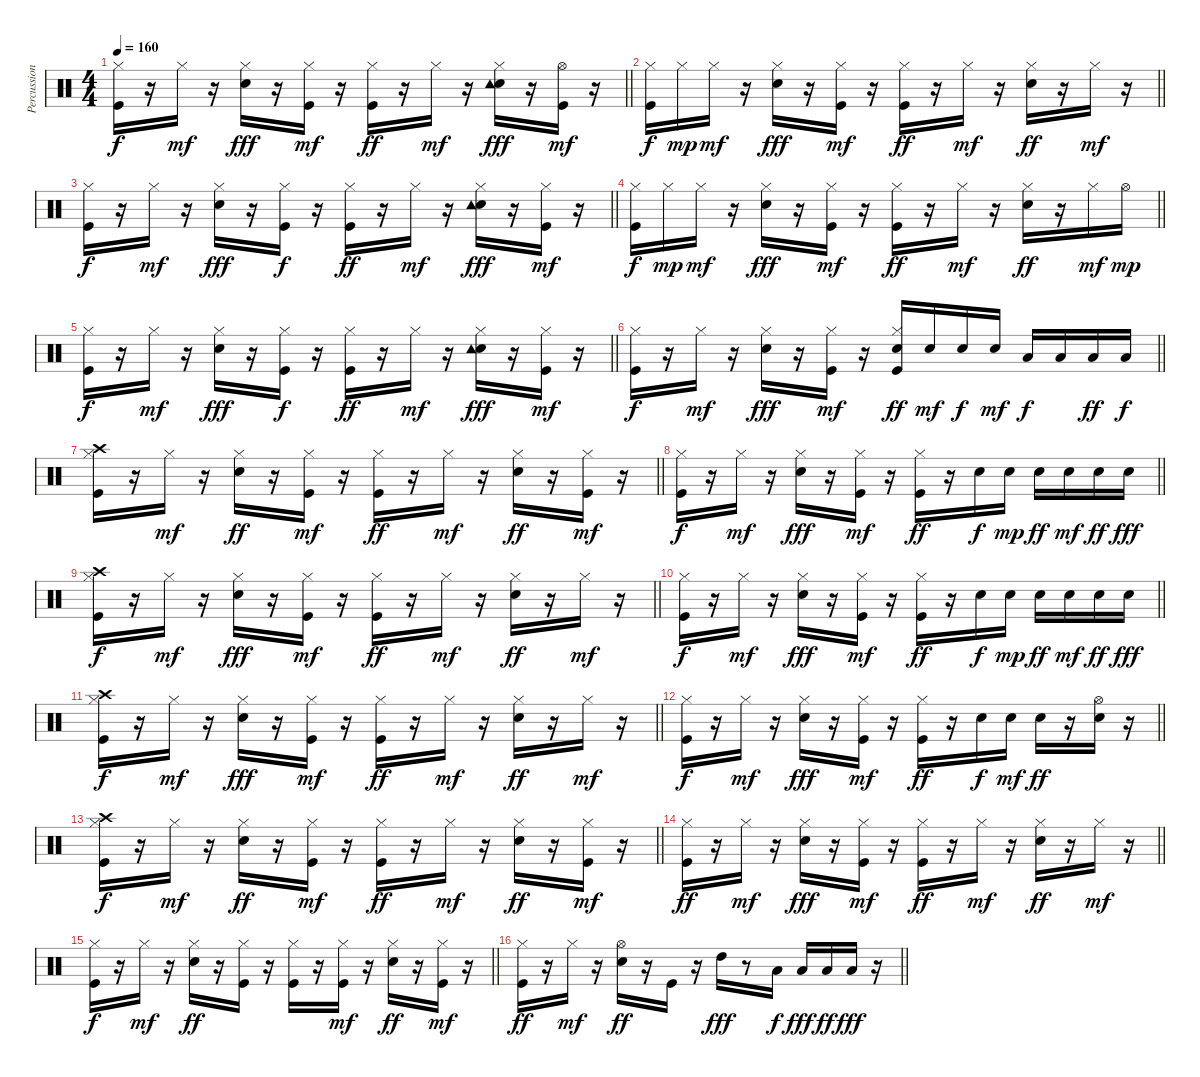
\track ("Percussions" "Percussion") {instrument percussion}
\staff {score}
\articulation defaults
\ts (4 4)
\tempo 160
\clef neutral
\barLineRight lightlight
\ks c
("Kick (hit)" "Hi-Hat (closed)").16{dy f} r.16 "Hi-Hat (closed)".16{dy mf} r.16 ("Snare (hit) 2" "Hi-Hat (closed)").16{dy fff} r.16 ("Kick (hit)" "Hi-Hat (closed)").16{dy mf} r.16 ("Kick (hit)" "Hi-Hat (closed)").16{dy ff} r.16 "Hi-Hat (closed)".16{dy mf} r.16 ("Snare (hit) 2" "Hi-Hat (closed)" "Tambourine (hit)").16{dy fff} r.16 ("Kick (hit)" "Hi-Hat (open)").16{dy mf} r.16 |
\barLineRight lightlight
("Kick (hit)" "Hi-Hat (closed)").16{dy f} "Hi-Hat (closed)".16{dy mp} "Hi-Hat (closed)".16{dy mf} r.16 ("Snare (hit) 2" "Hi-Hat (closed)").16{dy fff} r.16 ("Kick (hit)" "Hi-Hat (closed)").16{dy mf} r.16 ("Kick (hit)" "Hi-Hat (closed)").16{dy ff} r.16 "Hi-Hat (closed)".16{dy mf} r.16 ("Snare (hit) 2" "Hi-Hat (closed)").16{dy ff} r.16 "Hi-Hat (closed)".16{dy mf} r.16 |
\barLineRight lightlight
("Kick (hit)" "Hi-Hat (closed)").16{dy f} r.16 "Hi-Hat (closed)".16{dy mf} r.16 ("Snare (hit) 2" "Hi-Hat (closed)").16{dy fff} r.16 ("Kick (hit)" "Hi-Hat (closed)").16{dy f} r.16 ("Kick (hit)" "Hi-Hat (closed)").16{dy ff} r.16 "Hi-Hat (closed)".16{dy mf} r.16 ("Snare (hit) 2" "Hi-Hat (closed)" "Tambourine (hit)").16{dy fff} r.16 ("Kick (hit)" "Hi-Hat (closed)").16{dy mf} r.16 |
\barLineRight lightlight
("Kick (hit)" "Hi-Hat (closed)").16{dy f} "Hi-Hat (closed)".16{dy mp} "Hi-Hat (closed)".16{dy mf} r.16 ("Snare (hit) 2" "Hi-Hat (closed)").16{dy fff} r.16 ("Kick (hit)" "Hi-Hat (closed)").16{dy mf} r.16 ("Kick (hit)" "Hi-Hat (closed)").16{dy ff} r.16 "Hi-Hat (closed)".16{dy mf} r.16 ("Snare (hit) 2" "Hi-Hat (closed)").16{dy ff} r.16 "Hi-Hat (closed)".16{dy mf} "Hi-Hat (open)".16{dy mp} |
\barLineRight lightlight
("Kick (hit)" "Hi-Hat (closed)").16{dy f} r.16 "Hi-Hat (closed)".16{dy mf} r.16 ("Snare (hit) 2" "Hi-Hat (closed)").16{dy fff} r.16 ("Kick (hit)" "Hi-Hat (closed)").16{dy f} r.16 ("Kick (hit)" "Hi-Hat (closed)").16{dy ff} r.16 "Hi-Hat (closed)".16{dy mf} r.16 ("Snare (hit) 2" "Hi-Hat (closed)" "Tambourine (hit)").16{dy fff} r.16 ("Kick (hit)" "Hi-Hat (closed)").16{dy mf} r.16 |
\barLineRight lightlight
("Kick (hit)" "Hi-Hat (closed)").16{dy f} r.16 "Hi-Hat (closed)".16{dy mf} r.16 ("Snare (hit) 2" "Hi-Hat (closed)").16{dy fff} r.16 ("Kick (hit)" "Hi-Hat (closed)").16{dy mf} r.16 ("Kick (hit)" "Snare (hit) 2" "Hi-Hat (closed)").16{dy ff} "Snare (hit) 2".16{dy mf} "Snare (hit) 2".16{dy f} "Snare (hit) 2".16{dy mf} "Low Tom (hit)".16{dy f} "Low Tom (hit)".16 "Low Tom (hit)".16{dy ff} "Low Tom (hit)".16{dy f} |
\barLineRight lightlight
("Kick (hit)" "Hi-Hat (closed)" "Crash high (hit)").16 r.16 "Hi-Hat (closed)".16{dy mf} r.16 ("Snare (hit) 2" "Hi-Hat (closed)").16{dy ff} r.16 ("Kick (hit)" "Hi-Hat (closed)").16{dy mf} r.16 ("Kick (hit)" "Hi-Hat (closed)").16{dy ff} r.16 "Hi-Hat (closed)".16{dy mf} r.16 ("Snare (hit) 2" "Hi-Hat (closed)").16{dy ff} r.16 ("Kick (hit)" "Hi-Hat (closed)").16{dy mf} r.16 |
\barLineRight lightlight
("Kick (hit)" "Hi-Hat (closed)").16{dy f} r.16 "Hi-Hat (closed)".16{dy mf} r.16 ("Snare (hit) 2" "Hi-Hat (closed)").16{dy fff} r.16 ("Kick (hit)" "Hi-Hat (closed)").16{dy mf} r.16 ("Kick (hit)" "Hi-Hat (closed)").16{dy ff} r.16 "Snare (hit) 2".16{dy f} "Snare (hit) 2".16{dy mp} "Snare (hit) 2".16{dy ff} "Snare (hit) 2".16{dy mf} "Snare (hit) 2".16{dy ff} "Snare (hit) 2".16{dy fff} |
\barLineRight lightlight
("Kick (hit)" "Hi-Hat (closed)" "Crash high (hit)").16{dy f} r.16 "Hi-Hat (closed)".16{dy mf} r.16 ("Snare (hit) 2" "Hi-Hat (closed)").16{dy fff} r.16 ("Kick (hit)" "Hi-Hat (closed)").16{dy mf} r.16 ("Kick (hit)" "Hi-Hat (closed)").16{dy ff} r.16 "Hi-Hat (closed)".16{dy mf} r.16 ("Snare (hit) 2" "Hi-Hat (closed)").16{dy ff} r.16 "Hi-Hat (closed)".16{dy mf} r.16 |
\barLineRight lightlight
("Kick (hit)" "Hi-Hat (closed)").16{dy f} r.16 "Hi-Hat (closed)".16{dy mf} r.16 ("Snare (hit) 2" "Hi-Hat (closed)").16{dy fff} r.16 ("Kick (hit)" "Hi-Hat (closed)").16{dy mf} r.16 ("Kick (hit)" "Hi-Hat (closed)").16{dy ff} r.16 "Snare (hit) 2".16{dy f} "Snare (hit) 2".16{dy mp} "Snare (hit) 2".16{dy ff} "Snare (hit) 2".16{dy mf} "Snare (hit) 2".16{dy ff} "Snare (hit) 2".16{dy fff} |
\barLineRight lightlight
("Kick (hit)" "Hi-Hat (closed)" "Crash high (hit)").16{dy f} r.16 "Hi-Hat (closed)".16{dy mf} r.16 ("Snare (hit) 2" "Hi-Hat (closed)").16{dy fff} r.16 ("Kick (hit)" "Hi-Hat (closed)").16{dy mf} r.16 ("Kick (hit)" "Hi-Hat (closed)").16{dy ff} r.16 "Hi-Hat (closed)".16{dy mf} r.16 ("Snare (hit) 2" "Hi-Hat (closed)").16{dy ff} r.16 "Hi-Hat (closed)".16{dy mf} r.16 |
\barLineRight lightlight
("Kick (hit)" "Hi-Hat (closed)").16{dy f} r.16 "Hi-Hat (closed)".16{dy mf} r.16 ("Snare (hit) 2" "Hi-Hat (closed)").16{dy fff} r.16 ("Kick (hit)" "Hi-Hat (closed)").16{dy mf} r.16 ("Kick (hit)" "Hi-Hat (closed)").16{dy ff} r.16 "Snare (hit) 2".16{dy f} "Snare (hit) 2".16{dy mf} "Snare (hit) 2".16{dy ff} r.16 ("Snare (hit) 2" "Hi-Hat (open)").16 r.16 |
\barLineRight lightlight
("Kick (hit)" "Hi-Hat (closed)" "Crash high (hit)").16{dy f} r.16 "Hi-Hat (closed)".16{dy mf} r.16 ("Snare (hit) 2" "Hi-Hat (closed)").16{dy ff} r.16 ("Kick (hit)" "Hi-Hat (closed)").16{dy mf} r.16 ("Kick (hit)" "Hi-Hat (closed)").16{dy ff} r.16 "Hi-Hat (closed)".16{dy mf} r.16 ("Snare (hit) 2" "Hi-Hat (closed)").16{dy ff} r.16 ("Kick (hit)" "Hi-Hat (closed)").16{dy mf} r.16 |
\barLineRight lightlight
("Kick (hit)" "Hi-Hat (closed)").16{dy ff} r.16 "Hi-Hat (closed)".16{dy mf} r.16 ("Snare (hit) 2" "Hi-Hat (closed)").16{dy fff} r.16 ("Kick (hit)" "Hi-Hat (closed)").16{dy mf} r.16 ("Kick (hit)" "Hi-Hat (closed)").16{dy ff} r.16 "Hi-Hat (closed)".16{dy mf} r.16 ("Snare (hit) 2" "Hi-Hat (closed)").16{dy ff} r.16 "Hi-Hat (closed)".16{dy mf} r.16 |
\barLineRight lightlight
("Kick (hit)" "Hi-Hat (closed)").16{dy f} r.16 "Hi-Hat (closed)".16{dy mf} r.16 ("Snare (hit) 2" "Hi-Hat (closed)").16{dy ff} r.16 ("Kick (hit)" "Hi-Hat (closed)").16 r.16 ("Kick (hit)" "Hi-Hat (closed)").16 r.16 ("Kick (hit)" "Hi-Hat (closed)").16{dy mf} r.16 ("Snare (hit) 2" "Hi-Hat (closed)").16{dy ff} r.16 ("Kick (hit)" "Hi-Hat (closed)").16{dy mf} r.16 |
\barLineRight lightlight
("Kick (hit)" "Hi-Hat (closed)").16{dy ff} r.16 "Hi-Hat (closed)".16{dy mf} r.16 ("Snare (hit) 2" "Hi-Hat (open)").16{dy ff} r.16 "Kick (hit)".16 r.16 "High Tom (hit)".16{dy fff} r.8 "Low Tom (hit)".16{dy f} "Low Tom (hit)".16{dy fff} "Low Floor Tom (hit)".16{dy ff} "Low Floor Tom (hit)".16{dy fff} r.16
